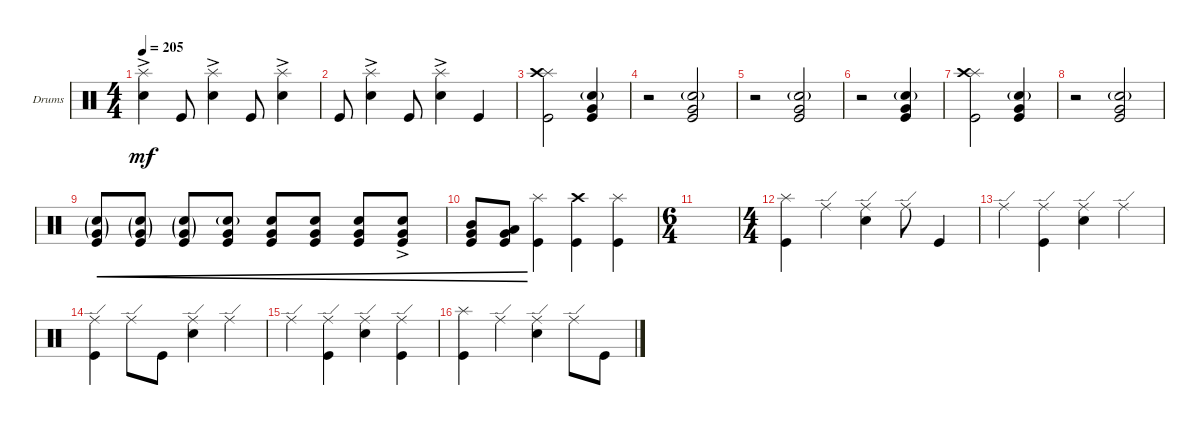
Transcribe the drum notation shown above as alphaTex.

\bracketExtendMode groupsimilarinstruments
\firstSystemTrackNameOrientation horizontal
\otherSystemsTrackNameOrientation horizontal
\track ("Drumkit" "Drums") {instrument percussion}
\staff {score}
\articulation defaults
\ts (4 4)
\tempo 205
\clef neutral
\ks c
("Snare (hit) 2"{ac} "Splash (hit)").4{dy mf} "Kick (hit)".8 ("Snare (hit) 2"{ac} "Splash (hit)").4 "Kick (hit)".8 ("Snare (hit) 2"{ac} "Splash (hit)").4 |
"Kick (hit)".8 ("Snare (hit) 2"{ac} "Splash (hit)").4 "Kick (hit)".8 ("Snare (hit) 2"{ac} "Splash (hit)").4 "Kick (hit)".4 |
("Splash (hit)" "Kick (hit)" "Crash high (hit)").2 ("Kick (hit)" "Very Low Tom (hit)" "Snare (hit) 2"{g}).4 |
r.2 ("Kick (hit)" "Very Low Tom (hit)" "Snare (hit) 2"{g}).2 |
r.2 ("Kick (hit)" "Very Low Tom (hit)" "Snare (hit) 2"{g}).2 |
r.2 ("Kick (hit)" "Very Low Tom (hit)" "Snare (hit) 2"{g}).4 |
("Splash (hit)" "Kick (hit)" "Crash high (hit)").2 ("Kick (hit)" "Very Low Tom (hit)" "Snare (hit) 2"{g}).4 |
r.2 ("Kick (hit)" "Very Low Tom (hit)" "Snare (hit) 2"{g}).2 |
("Kick (hit)" "Very Low Tom (hit)"{g} "Snare (hit) 2"{g}).8{cre} ("Kick (hit)" "Very Low Tom (hit)"{g} "Snare (hit) 2"{g}).8{cre} ("Kick (hit)" "Very Low Tom (hit)"{g} "Snare (hit) 2"{g}).8{cre} ("Kick (hit)" "Very Low Tom (hit)" "Snare (hit) 2"{g}).8{cre} ("Kick (hit)" "Very Low Tom (hit)" "Snare (hit) 2").8{cre} ("Kick (hit)" "Very Low Tom (hit)" "Snare (hit) 2").8{cre} ("Kick (hit)" "Very Low Tom (hit)" "Snare (hit) 2").8{cre} ("Kick (hit)" "Very Low Tom (hit)" "Snare (hit) 2"{ac}).8{cre} |
("Kick (hit)" "Very Low Tom (hit)" "Mid Tom (hit)").8{cre} ("Kick (hit)" "Very Low Tom (hit)" "Low Tom (hit)").8{cre} ("Kick (hit)" "Splash (hit)").4 ("Kick (hit)" "Crash high (hit)").4 ("Kick (hit)" "Splash (hit)").4 |
\ts (6 4)
|
\ts (4 4)
("Kick (hit)" "Splash (hit)").4 "Ride (edge)".4 ("Snare (hit) 2" "Ride (edge)").4 "Ride (edge)".8 "Kick (hit)".4 |
"Ride (edge)".4 ("Kick (hit)" "Ride (edge)").4 ("Snare (hit) 2" "Ride (edge)").4 "Ride (edge)".4 |
("Kick (hit)" "Ride (edge)").4 "Ride (edge)".8 "Kick (hit)".8 ("Snare (hit) 2" "Ride (edge)").4 "Ride (edge)".4 |
"Ride (edge)".4 ("Kick (hit)" "Ride (edge)").4 ("Snare (hit) 2" "Ride (edge)").4 ("Ride (edge)" "Kick (hit)").4 |
("Kick (hit)" "Splash (hit)").4 "Ride (edge)".4 ("Ride (edge)" "Snare (hit) 2").4 "Ride (edge)".8 "Kick (hit)".8
